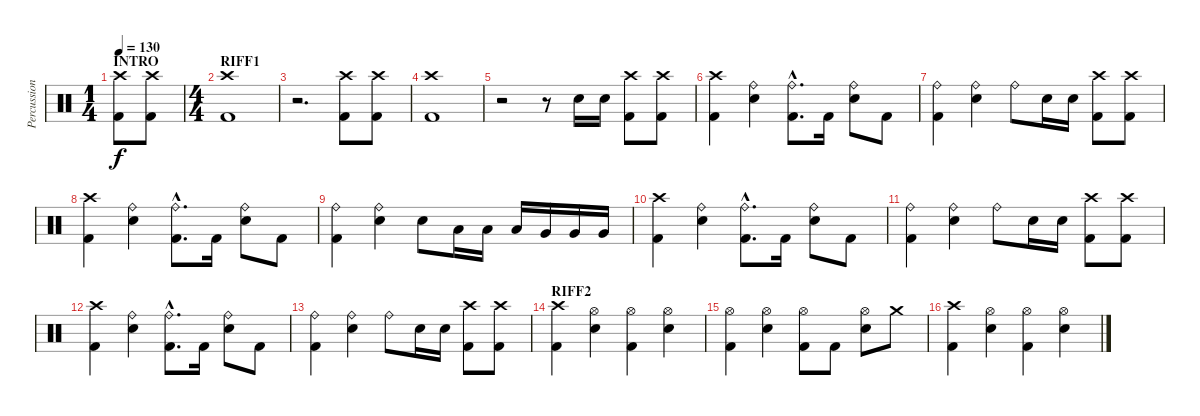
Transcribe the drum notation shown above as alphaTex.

\track ("Percussion" "Percussion") {instrument percussion}
\staff {score}
\articulation defaults
\ts (1 4)
\section ("" "INTRO")
\tempo 130
\clef neutral
\ks c
("Crash high (hit)" "Kick (hit) 2").8{dy f} ("Crash high (hit)" "Kick (hit) 2").8 |
\ts (4 4)
\section ("" "RIFF1")
("Crash high (hit)" "Kick (hit) 2").1 |
r.2{d} ("Crash high (hit)" "Kick (hit) 2").8 ("Crash high (hit)" "Kick (hit) 2").8 |
("Crash high (hit)" "Kick (hit) 2").1 |
r.2 r.8 "Electric Snare (hit)".16 "Electric Snare (hit)".16 ("Crash high (hit)" "Kick (hit) 2").8 ("Crash high (hit)" "Kick (hit) 2").8 |
("Crash high (hit)" "Kick (hit) 2").4 ("Ride (bell)" "Electric Snare (hit)").4 ("Ride (bell)"{hac} "Kick (hit) 2"{hac}).8{d} "Kick (hit) 2".16 ("Ride (bell)" "Electric Snare (hit)").8 "Kick (hit) 2".8 |
("Ride (bell)" "Kick (hit) 2").4 ("Ride (bell)" "Electric Snare (hit)").4 "Ride (bell)".8 "Electric Snare (hit)".16 "Electric Snare (hit)".16 ("Crash high (hit)" "Kick (hit) 2").8 ("Crash high (hit)" "Kick (hit) 2").8 |
("Crash high (hit)" "Kick (hit) 2").4 ("Ride (bell)" "Electric Snare (hit)").4 ("Ride (bell)"{hac} "Kick (hit) 2"{hac}).8{d} "Kick (hit) 2".16 ("Ride (bell)" "Electric Snare (hit)").8 "Kick (hit) 2".8 |
("Ride (bell)" "Kick (hit) 2").4 ("Ride (bell)" "Electric Snare (hit)").4 "Electric Snare (hit)".8 "Low Tom (hit)".16 "Low Tom (hit)".16 "Low Tom (hit)".16 "Very Low Tom (hit)".16 "Very Low Tom (hit)".16 "Very Low Tom (hit)".16 |
("Crash high (hit)" "Kick (hit) 2").4 ("Ride (bell)" "Electric Snare (hit)").4 ("Ride (bell)"{hac} "Kick (hit) 2"{hac}).8{d} "Kick (hit) 2".16 ("Ride (bell)" "Electric Snare (hit)").8 "Kick (hit) 2".8 |
("Ride (bell)" "Kick (hit) 2").4 ("Ride (bell)" "Electric Snare (hit)").4 "Ride (bell)".8 "Electric Snare (hit)".16 "Electric Snare (hit)".16 ("Crash high (hit)" "Kick (hit) 2").8 ("Crash high (hit)" "Kick (hit) 2").8 |
("Crash high (hit)" "Kick (hit) 2").4 ("Ride (bell)" "Electric Snare (hit)").4 ("Ride (bell)"{hac} "Kick (hit) 2"{hac}).8{d} "Kick (hit) 2".16 ("Ride (bell)" "Electric Snare (hit)").8 "Kick (hit) 2".8 |
("Ride (bell)" "Kick (hit) 2").4 ("Ride (bell)" "Electric Snare (hit)").4 "Ride (bell)".8 "Electric Snare (hit)".16 "Electric Snare (hit)".16 ("Crash high (hit)" "Kick (hit) 2").8 ("Crash high (hit)" "Kick (hit) 2").8 |
\section ("" "RIFF2")
("Crash high (hit)" "Kick (hit) 2").4 ("Hi-Hat (open)" "Electric Snare (hit)").4 ("Hi-Hat (open)" "Kick (hit) 2").4 ("Hi-Hat (open)" "Electric Snare (hit)").4 |
("Hi-Hat (open)" "Kick (hit) 2").4 ("Hi-Hat (open)" "Electric Snare (hit)").4 ("Hi-Hat (open)" "Kick (hit) 2").8 "Kick (hit) 2".8 ("Hi-Hat (open)" "Electric Snare (hit)").8 "Crash medium (hit)".8 |
("Crash high (hit)" "Kick (hit) 2").4 ("Hi-Hat (open)" "Electric Snare (hit)").4 ("Hi-Hat (open)" "Kick (hit) 2").4 ("Hi-Hat (open)" "Electric Snare (hit)").4
